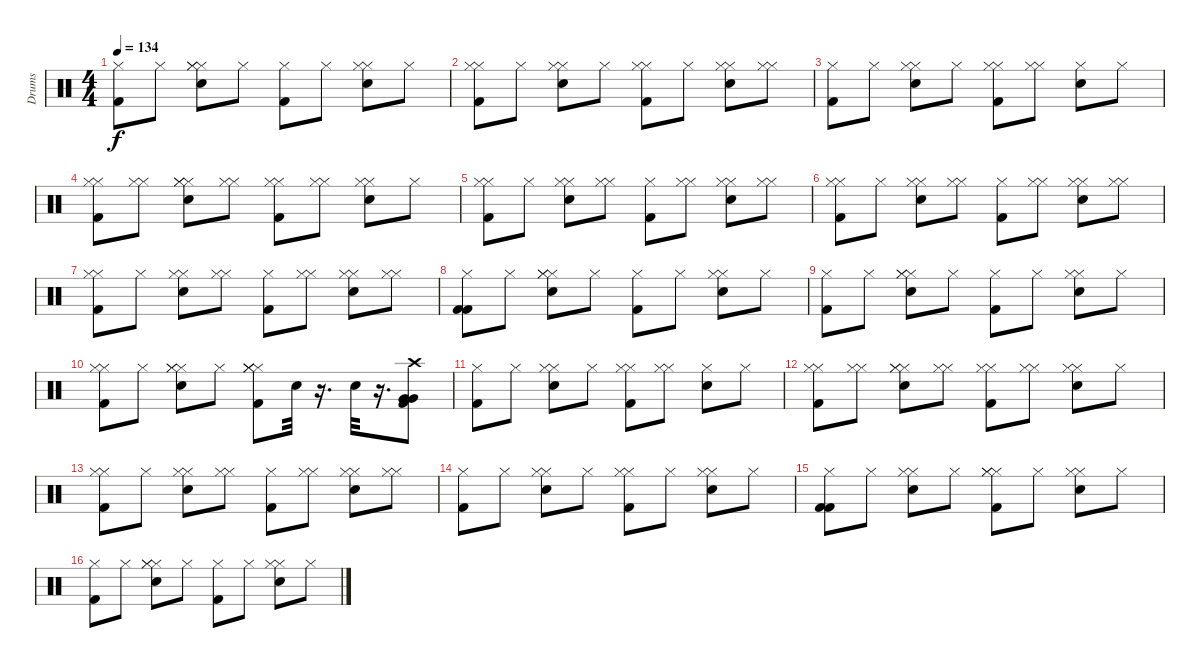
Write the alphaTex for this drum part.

\track ("Drums" "Drums") {instrument percussion}
\staff {score}
\articulation defaults
\ts (4 4)
\tempo 134
\clef neutral
\ks c
("Hi-Hat (closed)" "Kick (hit) 2").8{dy f} "Hi-Hat (closed)".8 ("Hi-Hat (closed)" "Hi-Hat (closed)" "Hi-Hat (closed)" "Electric Snare (hit)").8 "Hi-Hat (closed)".8 ("Hi-Hat (closed)" "Kick (hit) 2").8 "Hi-Hat (closed)".8 ("Hi-Hat (closed)" "Hi-Hat (closed)" "Electric Snare (hit)").8 "Hi-Hat (closed)".8 |
("Hi-Hat (closed)" "Hi-Hat (closed)" "Kick (hit) 2").8 "Hi-Hat (closed)".8 ("Hi-Hat (closed)" "Hi-Hat (closed)" "Electric Snare (hit)").8 "Hi-Hat (closed)".8 ("Hi-Hat (closed)" "Hi-Hat (closed)" "Kick (hit) 2").8 "Hi-Hat (closed)".8 ("Hi-Hat (closed)" "Hi-Hat (closed)" "Electric Snare (hit)").8 ("Hi-Hat (closed)" "Hi-Hat (closed)").8 |
("Hi-Hat (closed)" "Kick (hit) 2").8 "Hi-Hat (closed)".8 ("Hi-Hat (closed)" "Hi-Hat (closed)" "Electric Snare (hit)").8 "Hi-Hat (closed)".8 ("Hi-Hat (closed)" "Hi-Hat (closed)" "Kick (hit) 2").8 ("Hi-Hat (closed)" "Hi-Hat (closed)").8 ("Hi-Hat (closed)" "Electric Snare (hit)").8 "Hi-Hat (closed)".8 |
("Hi-Hat (closed)" "Hi-Hat (closed)" "Kick (hit) 2").8 ("Hi-Hat (closed)" "Hi-Hat (closed)").8 ("Hi-Hat (closed)" "Hi-Hat (closed)" "Hi-Hat (closed)" "Electric Snare (hit)").8 ("Hi-Hat (closed)" "Hi-Hat (closed)").8 ("Hi-Hat (closed)" "Hi-Hat (closed)" "Kick (hit) 2").8 ("Hi-Hat (closed)" "Hi-Hat (closed)").8 ("Hi-Hat (closed)" "Hi-Hat (closed)" "Electric Snare (hit)").8 "Hi-Hat (closed)".8 |
("Hi-Hat (closed)" "Hi-Hat (closed)" "Kick (hit) 2").8 "Hi-Hat (closed)".8 ("Hi-Hat (closed)" "Hi-Hat (closed)" "Electric Snare (hit)").8 ("Hi-Hat (closed)" "Hi-Hat (closed)").8 ("Hi-Hat (closed)" "Kick (hit) 2").8 ("Hi-Hat (closed)" "Hi-Hat (closed)").8 ("Hi-Hat (closed)" "Hi-Hat (closed)" "Electric Snare (hit)").8 ("Hi-Hat (closed)" "Hi-Hat (closed)").8 |
("Hi-Hat (closed)" "Hi-Hat (closed)" "Kick (hit) 2").8 "Hi-Hat (closed)".8 ("Hi-Hat (closed)" "Hi-Hat (closed)" "Electric Snare (hit)").8 ("Hi-Hat (closed)" "Hi-Hat (closed)").8 ("Hi-Hat (closed)" "Kick (hit) 2").8 ("Hi-Hat (closed)" "Hi-Hat (closed)").8 ("Hi-Hat (closed)" "Hi-Hat (closed)" "Electric Snare (hit)").8 ("Hi-Hat (closed)" "Hi-Hat (closed)").8 |
("Hi-Hat (closed)" "Hi-Hat (closed)" "Kick (hit) 2").8 "Hi-Hat (closed)".8 ("Hi-Hat (closed)" "Hi-Hat (closed)" "Electric Snare (hit)").8 ("Hi-Hat (closed)" "Hi-Hat (closed)").8 ("Hi-Hat (closed)" "Kick (hit) 2").8 ("Hi-Hat (closed)" "Hi-Hat (closed)").8 ("Hi-Hat (closed)" "Hi-Hat (closed)" "Electric Snare (hit)").8 ("Hi-Hat (closed)" "Hi-Hat (closed)").8 |
("Hi-Hat (closed)" "Kick (hit) 2" "Kick (hit) 2").8 "Hi-Hat (closed)".8 ("Hi-Hat (closed)" "Hi-Hat (closed)" "Hi-Hat (closed)" "Electric Snare (hit)").8 "Hi-Hat (closed)".8 ("Hi-Hat (closed)" "Kick (hit) 2").8 "Hi-Hat (closed)".8 ("Hi-Hat (closed)" "Hi-Hat (closed)" "Electric Snare (hit)").8 "Hi-Hat (closed)".8 |
("Hi-Hat (closed)" "Kick (hit) 2").8 "Hi-Hat (closed)".8 ("Hi-Hat (closed)" "Hi-Hat (closed)" "Hi-Hat (closed)" "Electric Snare (hit)").8 "Hi-Hat (closed)".8 ("Hi-Hat (closed)" "Kick (hit) 2").8 "Hi-Hat (closed)".8 ("Hi-Hat (closed)" "Hi-Hat (closed)" "Electric Snare (hit)").8 "Hi-Hat (closed)".8 |
("Hi-Hat (closed)" "Hi-Hat (closed)" "Kick (hit) 2").8 "Hi-Hat (closed)".8 ("Hi-Hat (closed)" "Hi-Hat (closed)" "Hi-Hat (closed)" "Electric Snare (hit)").8 "Hi-Hat (closed)".8 ("Hi-Hat (closed)" "Hi-Hat (closed)" "Hi-Hat (closed)" "Hi-Hat (closed)" "Kick (hit) 2").8 "Electric Snare (hit)".32 r.16{d} "Electric Snare (hit)".32 r.16{d} ("Very Low Tom (hit)" "Very Low Tom (hit)" "Crash high (hit)" "Kick (hit) 2").8 |
("Hi-Hat (closed)" "Kick (hit) 2").8 "Hi-Hat (closed)".8 ("Hi-Hat (closed)" "Hi-Hat (closed)" "Electric Snare (hit)").8 "Hi-Hat (closed)".8 ("Hi-Hat (closed)" "Hi-Hat (closed)" "Kick (hit) 2").8 ("Hi-Hat (closed)" "Hi-Hat (closed)").8 ("Hi-Hat (closed)" "Electric Snare (hit)").8 "Hi-Hat (closed)".8 |
("Hi-Hat (closed)" "Hi-Hat (closed)" "Kick (hit) 2").8 ("Hi-Hat (closed)" "Hi-Hat (closed)").8 ("Hi-Hat (closed)" "Hi-Hat (closed)" "Hi-Hat (closed)" "Electric Snare (hit)").8 ("Hi-Hat (closed)" "Hi-Hat (closed)").8 ("Hi-Hat (closed)" "Hi-Hat (closed)" "Kick (hit) 2").8 ("Hi-Hat (closed)" "Hi-Hat (closed)").8 ("Hi-Hat (closed)" "Hi-Hat (closed)" "Electric Snare (hit)").8 "Hi-Hat (closed)".8 |
("Hi-Hat (closed)" "Hi-Hat (closed)" "Kick (hit) 2").8 "Hi-Hat (closed)".8 ("Hi-Hat (closed)" "Hi-Hat (closed)" "Electric Snare (hit)").8 ("Hi-Hat (closed)" "Hi-Hat (closed)").8 ("Hi-Hat (closed)" "Kick (hit) 2").8 ("Hi-Hat (closed)" "Hi-Hat (closed)").8 ("Hi-Hat (closed)" "Hi-Hat (closed)" "Electric Snare (hit)").8 ("Hi-Hat (closed)" "Hi-Hat (closed)").8 |
("Hi-Hat (closed)" "Kick (hit) 2").8 "Hi-Hat (closed)".8 ("Hi-Hat (closed)" "Hi-Hat (closed)" "Electric Snare (hit)").8 "Hi-Hat (closed)".8 ("Hi-Hat (closed)" "Hi-Hat (closed)" "Kick (hit) 2").8 "Hi-Hat (closed)".8 ("Hi-Hat (closed)" "Hi-Hat (closed)" "Electric Snare (hit)").8 "Hi-Hat (closed)".8 |
("Hi-Hat (closed)" "Kick (hit) 2" "Kick (hit) 2").8 "Hi-Hat (closed)".8 ("Hi-Hat (closed)" "Hi-Hat (closed)" "Electric Snare (hit)").8 "Hi-Hat (closed)".8 ("Hi-Hat (closed)" "Hi-Hat (closed)" "Hi-Hat (closed)" "Kick (hit) 2").8 "Hi-Hat (closed)".8 ("Hi-Hat (closed)" "Hi-Hat (closed)" "Electric Snare (hit)").8 "Hi-Hat (closed)".8 |
("Hi-Hat (closed)" "Kick (hit) 2").8 "Hi-Hat (closed)".8 ("Hi-Hat (closed)" "Hi-Hat (closed)" "Hi-Hat (closed)" "Electric Snare (hit)").8 "Hi-Hat (closed)".8 ("Hi-Hat (closed)" "Kick (hit) 2").8 "Hi-Hat (closed)".8 ("Hi-Hat (closed)" "Hi-Hat (closed)" "Electric Snare (hit)").8 "Hi-Hat (closed)".8
